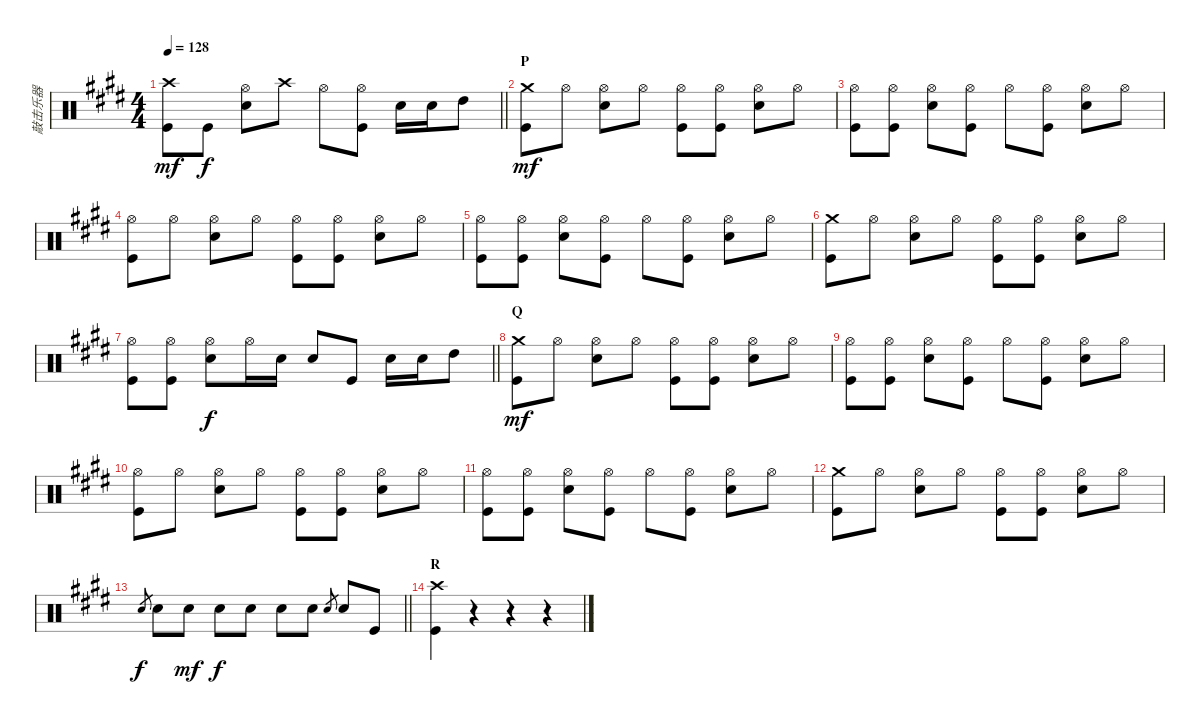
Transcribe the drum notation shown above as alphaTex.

\track ("敲击乐器" "敲击乐器") {instrument percussion}
\staff {score}
\articulation defaults
\ts (4 4)
\tempo 128
\clef neutral
\barLineRight lightlight
\ks e
("Crash high (hit)" "Kick (hit)").8{dy mf} "Kick (hit)".8{dy f} ("Hi-Hat (open)" "Snare (hit) 2").8 "Crash high (hit)".8 "Hi-Hat (open)".8 ("Kick (hit)" "Hi-Hat (open)").8 "Snare (hit) 2".16 "Snare (hit) 2".16 "High Tom (hit)".8 |
\section ("" "P")
("Crash medium (hit)" "Kick (hit)").8{dy mf} "Hi-Hat (open)".8 ("Hi-Hat (open)" "Snare (hit) 2").8 "Hi-Hat (open)".8 ("Hi-Hat (open)" "Kick (hit)").8 ("Hi-Hat (open)" "Kick (hit)").8 ("Hi-Hat (open)" "Snare (hit) 2").8 "Hi-Hat (open)".8 |
("Hi-Hat (open)" "Kick (hit)").8 ("Hi-Hat (open)" "Kick (hit)").8 ("Hi-Hat (open)" "Snare (hit) 2").8 ("Hi-Hat (open)" "Kick (hit)").8 "Hi-Hat (open)".8 ("Hi-Hat (open)" "Kick (hit)").8 ("Hi-Hat (open)" "Snare (hit) 2").8 "Hi-Hat (open)".8 |
("Hi-Hat (open)" "Kick (hit)").8 "Hi-Hat (open)".8 ("Hi-Hat (open)" "Snare (hit) 2").8 "Hi-Hat (open)".8 ("Hi-Hat (open)" "Kick (hit)").8 ("Hi-Hat (open)" "Kick (hit)").8 ("Hi-Hat (open)" "Snare (hit) 2").8 "Hi-Hat (open)".8 |
("Hi-Hat (open)" "Kick (hit)").8 ("Hi-Hat (open)" "Kick (hit)").8 ("Hi-Hat (open)" "Snare (hit) 2").8 ("Hi-Hat (open)" "Kick (hit)").8 "Hi-Hat (open)".8 ("Hi-Hat (open)" "Kick (hit)").8 ("Hi-Hat (open)" "Snare (hit) 2").8 "Hi-Hat (open)".8 |
("Crash medium (hit)" "Kick (hit)").8 "Hi-Hat (open)".8 ("Hi-Hat (open)" "Snare (hit) 2").8 "Hi-Hat (open)".8 ("Hi-Hat (open)" "Kick (hit)").8 ("Hi-Hat (open)" "Kick (hit)").8 ("Hi-Hat (open)" "Snare (hit) 2").8 "Hi-Hat (open)".8 |
\barLineRight lightlight
("Hi-Hat (open)" "Kick (hit)").8 ("Hi-Hat (open)" "Kick (hit)").8 ("Hi-Hat (open)" "Snare (hit) 2").8{dy f} "Hi-Hat (open)".16 "Snare (hit) 2".16 "Snare (hit) 2".8 "Kick (hit)".8 "Snare (hit) 2".16 "Snare (hit) 2".16 "High Tom (hit)".8 |
\section ("" "Q")
("Crash medium (hit)" "Kick (hit)").8{dy mf} "Hi-Hat (open)".8 ("Hi-Hat (open)" "Snare (hit) 2").8 "Hi-Hat (open)".8 ("Hi-Hat (open)" "Kick (hit)").8 ("Hi-Hat (open)" "Kick (hit)").8 ("Hi-Hat (open)" "Snare (hit) 2").8 "Hi-Hat (open)".8 |
("Hi-Hat (open)" "Kick (hit)").8 ("Hi-Hat (open)" "Kick (hit)").8 ("Hi-Hat (open)" "Snare (hit) 2").8 ("Hi-Hat (open)" "Kick (hit)").8 "Hi-Hat (open)".8 ("Hi-Hat (open)" "Kick (hit)").8 ("Hi-Hat (open)" "Snare (hit) 2").8 "Hi-Hat (open)".8 |
("Hi-Hat (open)" "Kick (hit)").8 "Hi-Hat (open)".8 ("Hi-Hat (open)" "Snare (hit) 2").8 "Hi-Hat (open)".8 ("Hi-Hat (open)" "Kick (hit)").8 ("Hi-Hat (open)" "Kick (hit)").8 ("Hi-Hat (open)" "Snare (hit) 2").8 "Hi-Hat (open)".8 |
("Hi-Hat (open)" "Kick (hit)").8 ("Hi-Hat (open)" "Kick (hit)").8 ("Hi-Hat (open)" "Snare (hit) 2").8 ("Hi-Hat (open)" "Kick (hit)").8 "Hi-Hat (open)".8 ("Hi-Hat (open)" "Kick (hit)").8 ("Hi-Hat (open)" "Snare (hit) 2").8 "Hi-Hat (open)".8 |
("Crash medium (hit)" "Kick (hit)").8 "Hi-Hat (open)".8 ("Hi-Hat (open)" "Snare (hit) 2").8 "Hi-Hat (open)".8 ("Hi-Hat (open)" "Kick (hit)").8 ("Hi-Hat (open)" "Kick (hit)").8 ("Hi-Hat (open)" "Snare (hit) 2").8 "Hi-Hat (open)".8 |
\barLineRight lightlight "Snare (hit) 2".8{gr dy f} "Snare (hit) 2".8 "Snare (hit) 2".8{dy mf} "Snare (hit) 2".8{dy f} "Snare (hit) 2".8 "Snare (hit) 2".8 "Snare (hit) 2".8 "Snare (hit) 2".8{gr} "Snare (hit) 2".8 "Kick (hit)".8
|
\section ("" "R")
("Crash high (hit)" "Kick (hit)").4 r.4 r.4 r.4
